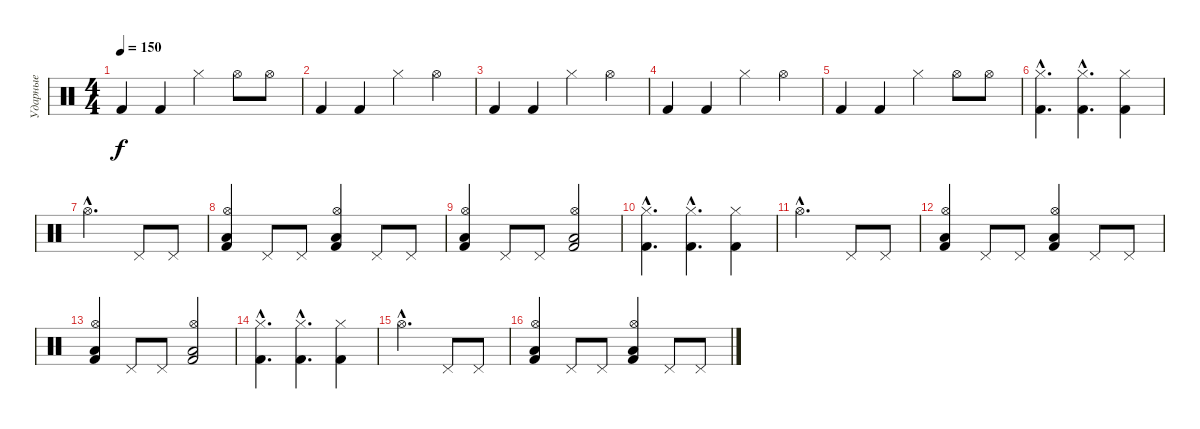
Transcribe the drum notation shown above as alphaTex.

\track ("Ударные" "Ударные") {instrument percussion}
\staff {score}
\articulation defaults
\ts (4 4)
\tempo 150
\clef neutral
\ks c "Kick (hit) 2".4{dy f} "Kick (hit) 2".4 "Hi-Hat (closed)".4 "Hi-Hat (open)".8 "Hi-Hat (open)".8
|
"Kick (hit) 2".4 "Kick (hit) 2".4 "Hi-Hat (closed)".4 "Hi-Hat (open)".4 |
"Kick (hit) 2".4 "Kick (hit) 2".4 "Hi-Hat (closed)".4 "Hi-Hat (open)".4 |
"Kick (hit) 2".4 "Kick (hit) 2".4 "Hi-Hat (closed)".4 "Hi-Hat (open)".4 |
"Kick (hit) 2".4 "Kick (hit) 2".4 "Hi-Hat (closed)".4 "Hi-Hat (open)".8 "Hi-Hat (open)".8 |
("Hi-Hat (closed)"{hac} "Kick (hit) 2"{hac}).4{d} ("Kick (hit) 2"{hac} "Hi-Hat (closed)"{hac}).4{d} ("Hi-Hat (closed)" "Kick (hit) 2").4 |
"Hi-Hat (open)"{hac}.2{d} "Pedal Hi-Hat (hit)".8 "Pedal Hi-Hat (hit)".8 |
("Low Floor Tom (hit)" "Kick (hit) 2" "Hi-Hat (open)").4 "Pedal Hi-Hat (hit)".8 "Pedal Hi-Hat (hit)".8 ("Low Floor Tom (hit)" "Hi-Hat (open)" "Kick (hit) 2").4 "Pedal Hi-Hat (hit)".8 "Pedal Hi-Hat (hit)".8 |
("Low Floor Tom (hit)" "Kick (hit) 2" "Hi-Hat (open)").4 "Pedal Hi-Hat (hit)".8 "Pedal Hi-Hat (hit)".8 ("Low Floor Tom (hit)" "Kick (hit) 2" "Hi-Hat (open)").2 |
("Hi-Hat (closed)"{hac} "Kick (hit) 2"{hac}).4{d} ("Kick (hit) 2"{hac} "Hi-Hat (closed)"{hac}).4{d} ("Hi-Hat (closed)" "Kick (hit) 2").4 |
"Hi-Hat (open)"{hac}.2{d} "Pedal Hi-Hat (hit)".8 "Pedal Hi-Hat (hit)".8 |
("Low Floor Tom (hit)" "Kick (hit) 2" "Hi-Hat (open)").4 "Pedal Hi-Hat (hit)".8 "Pedal Hi-Hat (hit)".8 ("Low Floor Tom (hit)" "Hi-Hat (open)" "Kick (hit) 2").4 "Pedal Hi-Hat (hit)".8 "Pedal Hi-Hat (hit)".8 |
("Low Floor Tom (hit)" "Kick (hit) 2" "Hi-Hat (open)").4 "Pedal Hi-Hat (hit)".8 "Pedal Hi-Hat (hit)".8 ("Low Floor Tom (hit)" "Kick (hit) 2" "Hi-Hat (open)").2 |
("Hi-Hat (closed)"{hac} "Kick (hit) 2"{hac}).4{d} ("Kick (hit) 2"{hac} "Hi-Hat (closed)"{hac}).4{d} ("Hi-Hat (closed)" "Kick (hit) 2").4 |
"Hi-Hat (open)"{hac}.2{d} "Pedal Hi-Hat (hit)".8 "Pedal Hi-Hat (hit)".8 |
("Low Floor Tom (hit)" "Kick (hit) 2" "Hi-Hat (open)").4 "Pedal Hi-Hat (hit)".8 "Pedal Hi-Hat (hit)".8 ("Low Floor Tom (hit)" "Hi-Hat (open)" "Kick (hit) 2").4 "Pedal Hi-Hat (hit)".8 "Pedal Hi-Hat (hit)".8
